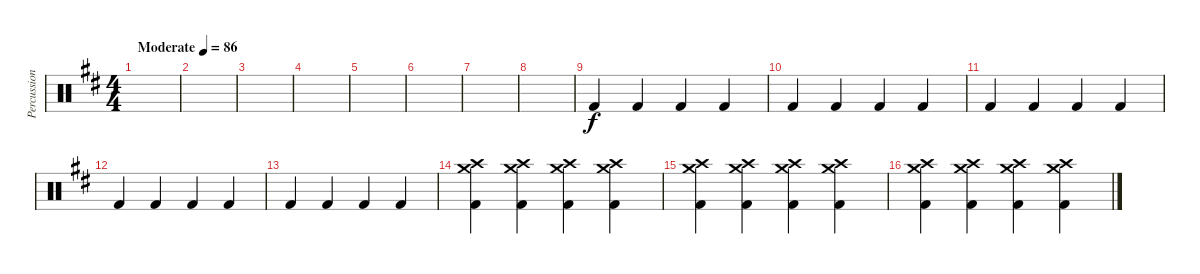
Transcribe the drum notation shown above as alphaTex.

\track ("Percussion" "Percussion") {instrument percussion}
\staff {score}
\articulation defaults
\ts (4 4)
\tempo (86 "Moderate")
\clef neutral
\ks d
|
|
|
|
|
|
|
|
"Kick (hit) 2".4 "Kick (hit) 2".4 "Kick (hit) 2".4 "Kick (hit) 2".4 |
"Kick (hit) 2".4 "Kick (hit) 2".4 "Kick (hit) 2".4 "Kick (hit) 2".4 |
"Kick (hit) 2".4 "Kick (hit) 2".4 "Kick (hit) 2".4 "Kick (hit) 2".4 |
"Kick (hit) 2".4 "Kick (hit) 2".4 "Kick (hit) 2".4 "Kick (hit) 2".4 |
"Kick (hit) 2".4 "Kick (hit) 2".4 "Kick (hit) 2".4 "Kick (hit) 2".4 |
("Crash medium (hit)" "Crash high (hit)" "Kick (hit) 2").4 ("Crash medium (hit)" "Crash high (hit)" "Kick (hit) 2").4 ("Crash medium (hit)" "Crash high (hit)" "Kick (hit) 2").4 ("Crash medium (hit)" "Crash high (hit)" "Kick (hit) 2").4 |
("Crash medium (hit)" "Crash high (hit)" "Kick (hit) 2").4 ("Crash medium (hit)" "Crash high (hit)" "Kick (hit) 2").4 ("Crash medium (hit)" "Crash high (hit)" "Kick (hit) 2").4 ("Crash medium (hit)" "Crash high (hit)" "Kick (hit) 2").4 |
("Crash medium (hit)" "Crash high (hit)" "Kick (hit) 2").4 ("Crash medium (hit)" "Crash high (hit)" "Kick (hit) 2").4 ("Crash medium (hit)" "Crash high (hit)" "Kick (hit) 2").4 ("Crash medium (hit)" "Crash high (hit)" "Kick (hit) 2").4
